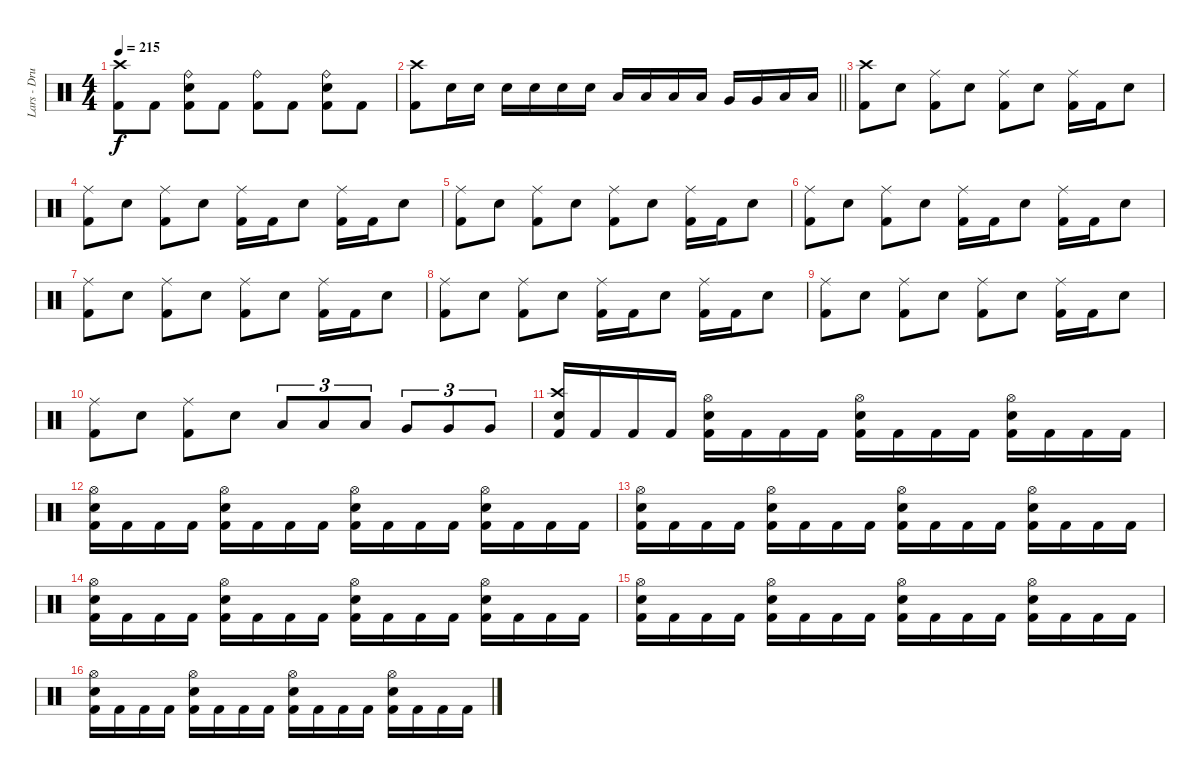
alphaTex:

\track ("Lars - Drums" "Lars - Dru") {instrument percussion}
\staff {score}
\articulation defaults
\ts (4 4)
\tempo 215
\clef neutral
\ks c
("Kick (hit) 2" "Crash high (hit)").8{dy f} "Kick (hit) 2".8 ("Kick (hit) 2" "Electric Snare (hit)" "Ride (bell)").8 "Kick (hit) 2".8 ("Kick (hit) 2" "Ride (bell)").8 "Kick (hit) 2".8 ("Kick (hit) 2" "Electric Snare (hit)" "Ride (bell)").8 "Kick (hit) 2".8 |
\barLineRight lightlight
("Kick (hit) 2" "Crash high (hit)").8 "Electric Snare (hit)".16 "Electric Snare (hit)".16 "Electric Snare (hit)".16 "Electric Snare (hit)".16 "Electric Snare (hit)".16 "Electric Snare (hit)".16 "Low Tom (hit)".16 "Low Tom (hit)".16 "Low Tom (hit)".16 "Low Tom (hit)".16 "Very Low Tom (hit)".16 "Very Low Tom (hit)".16 "Low Floor Tom (hit)".16 "Low Floor Tom (hit)".16 |
\section ("" "")
("Kick (hit) 2" "Crash high (hit)").8 "Electric Snare (hit)".8 ("Kick (hit) 2" "Ride (middle)").8 "Electric Snare (hit)".8 ("Kick (hit) 2" "Ride (middle)").8 "Electric Snare (hit)".8 ("Kick (hit) 2" "Ride (middle)").16 "Kick (hit) 2".16 "Electric Snare (hit)".8 |
("Kick (hit) 2" "Ride (middle)").8 "Electric Snare (hit)".8 ("Kick (hit) 2" "Ride (middle)").8 "Electric Snare (hit)".8 ("Kick (hit) 2" "Ride (middle)").16 "Kick (hit) 2".16 "Electric Snare (hit)".8 ("Kick (hit) 2" "Ride (middle)").16 "Kick (hit) 2".16 "Electric Snare (hit)".8 |
("Kick (hit) 2" "Ride (middle)").8 "Electric Snare (hit)".8 ("Kick (hit) 2" "Ride (middle)").8 "Electric Snare (hit)".8 ("Kick (hit) 2" "Ride (middle)").8 "Electric Snare (hit)".8 ("Kick (hit) 2" "Ride (middle)").16 "Kick (hit) 2".16 "Electric Snare (hit)".8 |
("Kick (hit) 2" "Ride (middle)").8 "Electric Snare (hit)".8 ("Kick (hit) 2" "Ride (middle)").8 "Electric Snare (hit)".8 ("Kick (hit) 2" "Ride (middle)").16 "Kick (hit) 2".16 "Electric Snare (hit)".8 ("Kick (hit) 2" "Ride (middle)").16 "Kick (hit) 2".16 "Electric Snare (hit)".8 |
("Kick (hit) 2" "Ride (middle)").8 "Electric Snare (hit)".8 ("Kick (hit) 2" "Ride (middle)").8 "Electric Snare (hit)".8 ("Kick (hit) 2" "Ride (middle)").8 "Electric Snare (hit)".8 ("Kick (hit) 2" "Ride (middle)").16 "Kick (hit) 2".16 "Electric Snare (hit)".8 |
("Kick (hit) 2" "Ride (middle)").8 "Electric Snare (hit)".8 ("Kick (hit) 2" "Ride (middle)").8 "Electric Snare (hit)".8 ("Kick (hit) 2" "Ride (middle)").16 "Kick (hit) 2".16 "Electric Snare (hit)".8 ("Kick (hit) 2" "Ride (middle)").16 "Kick (hit) 2".16 "Electric Snare (hit)".8 |
("Kick (hit) 2" "Ride (middle)").8 "Electric Snare (hit)".8 ("Kick (hit) 2" "Ride (middle)").8 "Electric Snare (hit)".8 ("Kick (hit) 2" "Ride (middle)").8 "Electric Snare (hit)".8 ("Kick (hit) 2" "Ride (middle)").16 "Kick (hit) 2".16 "Electric Snare (hit)".8 |
("Kick (hit) 2" "Ride (middle)").8 "Electric Snare (hit)".8 ("Kick (hit) 2" "Ride (middle)").8 "Electric Snare (hit)".8 "Low Tom (hit)".8{tu (3 2)} "Low Tom (hit)".8{tu (3 2)} "Low Tom (hit)".8{tu (3 2)} "Very Low Tom (hit)".8{tu (3 2)} "Very Low Tom (hit)".8{tu (3 2)} "Very Low Tom (hit)".8{tu (3 2)} |
("Kick (hit) 2" "Electric Snare (hit)" "Crash high (hit)").16 "Kick (hit) 2".16 "Kick (hit) 2".16 "Kick (hit) 2".16 ("Kick (hit) 2" "Electric Snare (hit)" "Hi-Hat (open)").16 "Kick (hit) 2".16 "Kick (hit) 2".16 "Kick (hit) 2".16 ("Kick (hit) 2" "Electric Snare (hit)" "Hi-Hat (open)").16 "Kick (hit) 2".16 "Kick (hit) 2".16 "Kick (hit) 2".16 ("Kick (hit) 2" "Electric Snare (hit)" "Hi-Hat (open)").16 "Kick (hit) 2".16 "Kick (hit) 2".16 "Kick (hit) 2".16 |
("Kick (hit) 2" "Electric Snare (hit)" "Hi-Hat (open)").16 "Kick (hit) 2".16 "Kick (hit) 2".16 "Kick (hit) 2".16 ("Kick (hit) 2" "Electric Snare (hit)" "Hi-Hat (open)").16 "Kick (hit) 2".16 "Kick (hit) 2".16 "Kick (hit) 2".16 ("Kick (hit) 2" "Electric Snare (hit)" "Hi-Hat (open)").16 "Kick (hit) 2".16 "Kick (hit) 2".16 "Kick (hit) 2".16 ("Kick (hit) 2" "Electric Snare (hit)" "Hi-Hat (open)").16 "Kick (hit) 2".16 "Kick (hit) 2".16 "Kick (hit) 2".16 |
("Kick (hit) 2" "Electric Snare (hit)" "Hi-Hat (open)").16 "Kick (hit) 2".16 "Kick (hit) 2".16 "Kick (hit) 2".16 ("Kick (hit) 2" "Electric Snare (hit)" "Hi-Hat (open)").16 "Kick (hit) 2".16 "Kick (hit) 2".16 "Kick (hit) 2".16 ("Kick (hit) 2" "Electric Snare (hit)" "Hi-Hat (open)").16 "Kick (hit) 2".16 "Kick (hit) 2".16 "Kick (hit) 2".16 ("Kick (hit) 2" "Electric Snare (hit)" "Hi-Hat (open)").16 "Kick (hit) 2".16 "Kick (hit) 2".16 "Kick (hit) 2".16 |
("Kick (hit) 2" "Electric Snare (hit)" "Hi-Hat (open)").16 "Kick (hit) 2".16 "Kick (hit) 2".16 "Kick (hit) 2".16 ("Kick (hit) 2" "Electric Snare (hit)" "Hi-Hat (open)").16 "Kick (hit) 2".16 "Kick (hit) 2".16 "Kick (hit) 2".16 ("Kick (hit) 2" "Electric Snare (hit)" "Hi-Hat (open)").16 "Kick (hit) 2".16 "Kick (hit) 2".16 "Kick (hit) 2".16 ("Kick (hit) 2" "Electric Snare (hit)" "Hi-Hat (open)").16 "Kick (hit) 2".16 "Kick (hit) 2".16 "Kick (hit) 2".16 |
("Kick (hit) 2" "Electric Snare (hit)" "Hi-Hat (open)").16 "Kick (hit) 2".16 "Kick (hit) 2".16 "Kick (hit) 2".16 ("Kick (hit) 2" "Electric Snare (hit)" "Hi-Hat (open)").16 "Kick (hit) 2".16 "Kick (hit) 2".16 "Kick (hit) 2".16 ("Kick (hit) 2" "Electric Snare (hit)" "Hi-Hat (open)").16 "Kick (hit) 2".16 "Kick (hit) 2".16 "Kick (hit) 2".16 ("Kick (hit) 2" "Electric Snare (hit)" "Hi-Hat (open)").16 "Kick (hit) 2".16 "Kick (hit) 2".16 "Kick (hit) 2".16 |
("Kick (hit) 2" "Electric Snare (hit)" "Hi-Hat (open)").16 "Kick (hit) 2".16 "Kick (hit) 2".16 "Kick (hit) 2".16 ("Kick (hit) 2" "Electric Snare (hit)" "Hi-Hat (open)").16 "Kick (hit) 2".16 "Kick (hit) 2".16 "Kick (hit) 2".16 ("Kick (hit) 2" "Electric Snare (hit)" "Hi-Hat (open)").16 "Kick (hit) 2".16 "Kick (hit) 2".16 "Kick (hit) 2".16 ("Kick (hit) 2" "Electric Snare (hit)" "Hi-Hat (open)").16 "Kick (hit) 2".16 "Kick (hit) 2".16 "Kick (hit) 2".16
